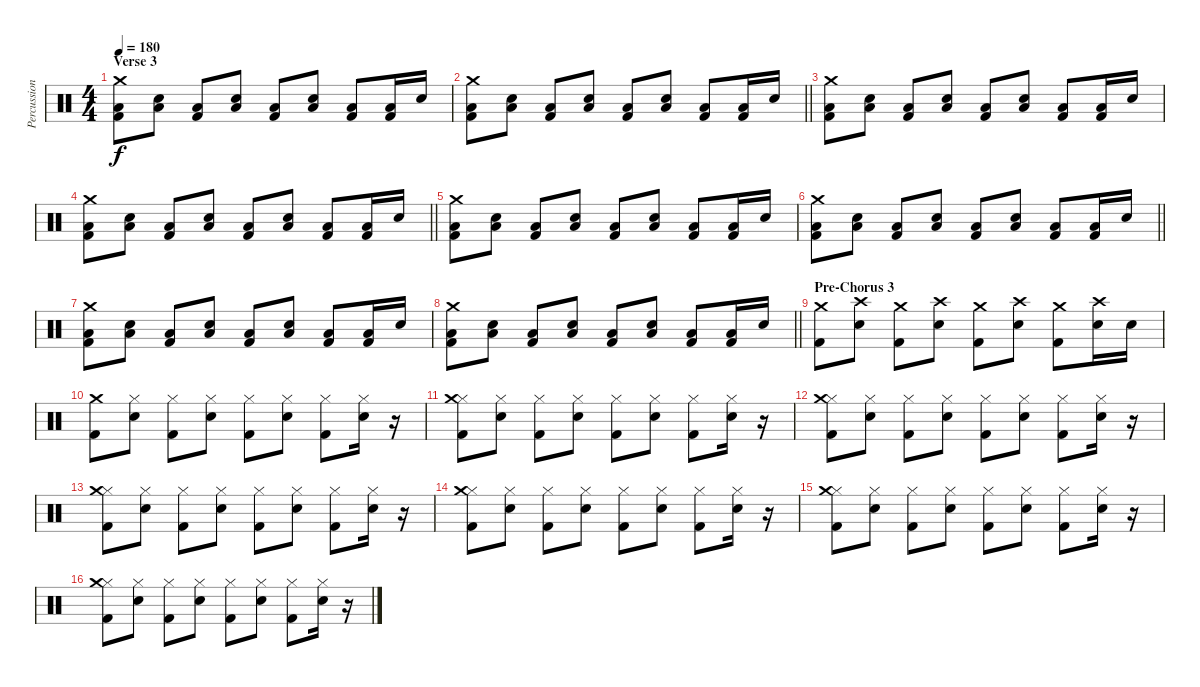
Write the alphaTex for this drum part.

\track ("Percussion" "Percussion") {instrument percussion}
\staff {score}
\articulation defaults
\ts (4 4)
\section ("" "Verse 3")
\tempo 180
\clef neutral
\ks c
("Low Floor Tom (hit)" "Kick (hit) 2" "Crash medium (hit)").8{dy f} ("Low Floor Tom (hit)" "Snare (hit) 2").8 ("Low Floor Tom (hit)" "Kick (hit) 2").8 ("Low Floor Tom (hit)" "Snare (hit) 2").8 ("Low Floor Tom (hit)" "Kick (hit) 2").8 ("Low Floor Tom (hit)" "Snare (hit) 2").8 ("Low Floor Tom (hit)" "Kick (hit) 2").8 ("Low Floor Tom (hit)" "Kick (hit) 2").16 "Snare (hit) 2".16 |
\barLineRight lightlight
("Low Floor Tom (hit)" "Kick (hit) 2" "Crash medium (hit)").8 ("Low Floor Tom (hit)" "Snare (hit) 2").8 ("Low Floor Tom (hit)" "Kick (hit) 2").8 ("Low Floor Tom (hit)" "Snare (hit) 2").8 ("Low Floor Tom (hit)" "Kick (hit) 2").8 ("Low Floor Tom (hit)" "Snare (hit) 2").8 ("Low Floor Tom (hit)" "Kick (hit) 2").8 ("Low Floor Tom (hit)" "Kick (hit) 2").16 "Snare (hit) 2".16 |
("Low Floor Tom (hit)" "Kick (hit) 2" "Crash medium (hit)").8 ("Low Floor Tom (hit)" "Snare (hit) 2").8 ("Low Floor Tom (hit)" "Kick (hit) 2").8 ("Low Floor Tom (hit)" "Snare (hit) 2").8 ("Low Floor Tom (hit)" "Kick (hit) 2").8 ("Low Floor Tom (hit)" "Snare (hit) 2").8 ("Low Floor Tom (hit)" "Kick (hit) 2").8 ("Low Floor Tom (hit)" "Kick (hit) 2").16 "Snare (hit) 2".16 |
\barLineRight lightlight
("Low Floor Tom (hit)" "Kick (hit) 2" "Crash medium (hit)").8 ("Low Floor Tom (hit)" "Snare (hit) 2").8 ("Low Floor Tom (hit)" "Kick (hit) 2").8 ("Low Floor Tom (hit)" "Snare (hit) 2").8 ("Low Floor Tom (hit)" "Kick (hit) 2").8 ("Low Floor Tom (hit)" "Snare (hit) 2").8 ("Low Floor Tom (hit)" "Kick (hit) 2").8 ("Low Floor Tom (hit)" "Kick (hit) 2").16 "Snare (hit) 2".16 |
("Low Floor Tom (hit)" "Kick (hit) 2" "Crash medium (hit)").8 ("Low Floor Tom (hit)" "Snare (hit) 2").8 ("Low Floor Tom (hit)" "Kick (hit) 2").8 ("Low Floor Tom (hit)" "Snare (hit) 2").8 ("Low Floor Tom (hit)" "Kick (hit) 2").8 ("Low Floor Tom (hit)" "Snare (hit) 2").8 ("Low Floor Tom (hit)" "Kick (hit) 2").8 ("Low Floor Tom (hit)" "Kick (hit) 2").16 "Snare (hit) 2".16 |
\barLineRight lightlight
("Low Floor Tom (hit)" "Kick (hit) 2" "Crash medium (hit)").8 ("Low Floor Tom (hit)" "Snare (hit) 2").8 ("Low Floor Tom (hit)" "Kick (hit) 2").8 ("Low Floor Tom (hit)" "Snare (hit) 2").8 ("Low Floor Tom (hit)" "Kick (hit) 2").8 ("Low Floor Tom (hit)" "Snare (hit) 2").8 ("Low Floor Tom (hit)" "Kick (hit) 2").8 ("Low Floor Tom (hit)" "Kick (hit) 2").16 "Snare (hit) 2".16 |
("Low Floor Tom (hit)" "Kick (hit) 2" "Crash medium (hit)").8 ("Low Floor Tom (hit)" "Snare (hit) 2").8 ("Low Floor Tom (hit)" "Kick (hit) 2").8 ("Low Floor Tom (hit)" "Snare (hit) 2").8 ("Low Floor Tom (hit)" "Kick (hit) 2").8 ("Low Floor Tom (hit)" "Snare (hit) 2").8 ("Low Floor Tom (hit)" "Kick (hit) 2").8 ("Low Floor Tom (hit)" "Kick (hit) 2").16 "Snare (hit) 2".16 |
\barLineRight lightlight
("Low Floor Tom (hit)" "Kick (hit) 2" "Crash medium (hit)").8 ("Low Floor Tom (hit)" "Snare (hit) 2").8 ("Low Floor Tom (hit)" "Kick (hit) 2").8 ("Low Floor Tom (hit)" "Snare (hit) 2").8 ("Low Floor Tom (hit)" "Kick (hit) 2").8 ("Low Floor Tom (hit)" "Snare (hit) 2").8 ("Low Floor Tom (hit)" "Kick (hit) 2").8 ("Low Floor Tom (hit)" "Kick (hit) 2").16 "Snare (hit) 2".16 |
\section ("" "Pre-Chorus 3")
("Kick (hit) 2" "Crash medium (hit)").8 ("Snare (hit) 2" "Crash high (hit)").8 ("Kick (hit) 2" "Crash medium (hit)").8 ("Snare (hit) 2" "Crash high (hit)").8 ("Kick (hit) 2" "Crash medium (hit)").8 ("Snare (hit) 2" "Crash high (hit)").8 ("Kick (hit) 2" "Crash medium (hit)").8 ("Snare (hit) 2" "Crash high (hit)").16 "Snare (hit) 2".16 |
("Kick (hit) 2" "Crash medium (hit)").8 ("Hi-Hat (closed)" "Snare (hit) 2").8 ("Hi-Hat (closed)" "Kick (hit) 2").8 ("Hi-Hat (closed)" "Snare (hit) 2").8 ("Hi-Hat (closed)" "Kick (hit) 2").8 ("Hi-Hat (closed)" "Snare (hit) 2").8 ("Hi-Hat (closed)" "Kick (hit) 2").8 ("Hi-Hat (closed)" "Snare (hit) 2").16 r.16 |
("Hi-Hat (closed)" "Kick (hit) 2" "Crash medium (hit)").8 ("Hi-Hat (closed)" "Snare (hit) 2").8 ("Hi-Hat (closed)" "Kick (hit) 2").8 ("Hi-Hat (closed)" "Snare (hit) 2").8 ("Hi-Hat (closed)" "Kick (hit) 2").8 ("Hi-Hat (closed)" "Snare (hit) 2").8 ("Hi-Hat (closed)" "Kick (hit) 2").8 ("Hi-Hat (closed)" "Snare (hit) 2").16 r.16 |
("Hi-Hat (closed)" "Kick (hit) 2" "Crash medium (hit)").8 ("Hi-Hat (closed)" "Snare (hit) 2").8 ("Hi-Hat (closed)" "Kick (hit) 2").8 ("Hi-Hat (closed)" "Snare (hit) 2").8 ("Hi-Hat (closed)" "Kick (hit) 2").8 ("Hi-Hat (closed)" "Snare (hit) 2").8 ("Hi-Hat (closed)" "Kick (hit) 2").8 ("Hi-Hat (closed)" "Snare (hit) 2").16 r.16 |
("Hi-Hat (closed)" "Kick (hit) 2" "Crash medium (hit)").8 ("Hi-Hat (closed)" "Snare (hit) 2").8 ("Hi-Hat (closed)" "Kick (hit) 2").8 ("Hi-Hat (closed)" "Snare (hit) 2").8 ("Hi-Hat (closed)" "Kick (hit) 2").8 ("Hi-Hat (closed)" "Snare (hit) 2").8 ("Hi-Hat (closed)" "Kick (hit) 2").8 ("Hi-Hat (closed)" "Snare (hit) 2").16 r.16 |
("Hi-Hat (closed)" "Kick (hit) 2" "Crash medium (hit)").8 ("Hi-Hat (closed)" "Snare (hit) 2").8 ("Hi-Hat (closed)" "Kick (hit) 2").8 ("Hi-Hat (closed)" "Snare (hit) 2").8 ("Hi-Hat (closed)" "Kick (hit) 2").8 ("Hi-Hat (closed)" "Snare (hit) 2").8 ("Hi-Hat (closed)" "Kick (hit) 2").8 ("Hi-Hat (closed)" "Snare (hit) 2").16 r.16 |
("Hi-Hat (closed)" "Kick (hit) 2" "Crash medium (hit)").8 ("Hi-Hat (closed)" "Snare (hit) 2").8 ("Hi-Hat (closed)" "Kick (hit) 2").8 ("Hi-Hat (closed)" "Snare (hit) 2").8 ("Hi-Hat (closed)" "Kick (hit) 2").8 ("Hi-Hat (closed)" "Snare (hit) 2").8 ("Hi-Hat (closed)" "Kick (hit) 2").8 ("Hi-Hat (closed)" "Snare (hit) 2").16 r.16 |
("Hi-Hat (closed)" "Kick (hit) 2" "Crash medium (hit)").8 ("Hi-Hat (closed)" "Snare (hit) 2").8 ("Hi-Hat (closed)" "Kick (hit) 2").8 ("Hi-Hat (closed)" "Snare (hit) 2").8 ("Hi-Hat (closed)" "Kick (hit) 2").8 ("Hi-Hat (closed)" "Snare (hit) 2").8 ("Hi-Hat (closed)" "Kick (hit) 2").8 ("Hi-Hat (closed)" "Snare (hit) 2").16 r.16
